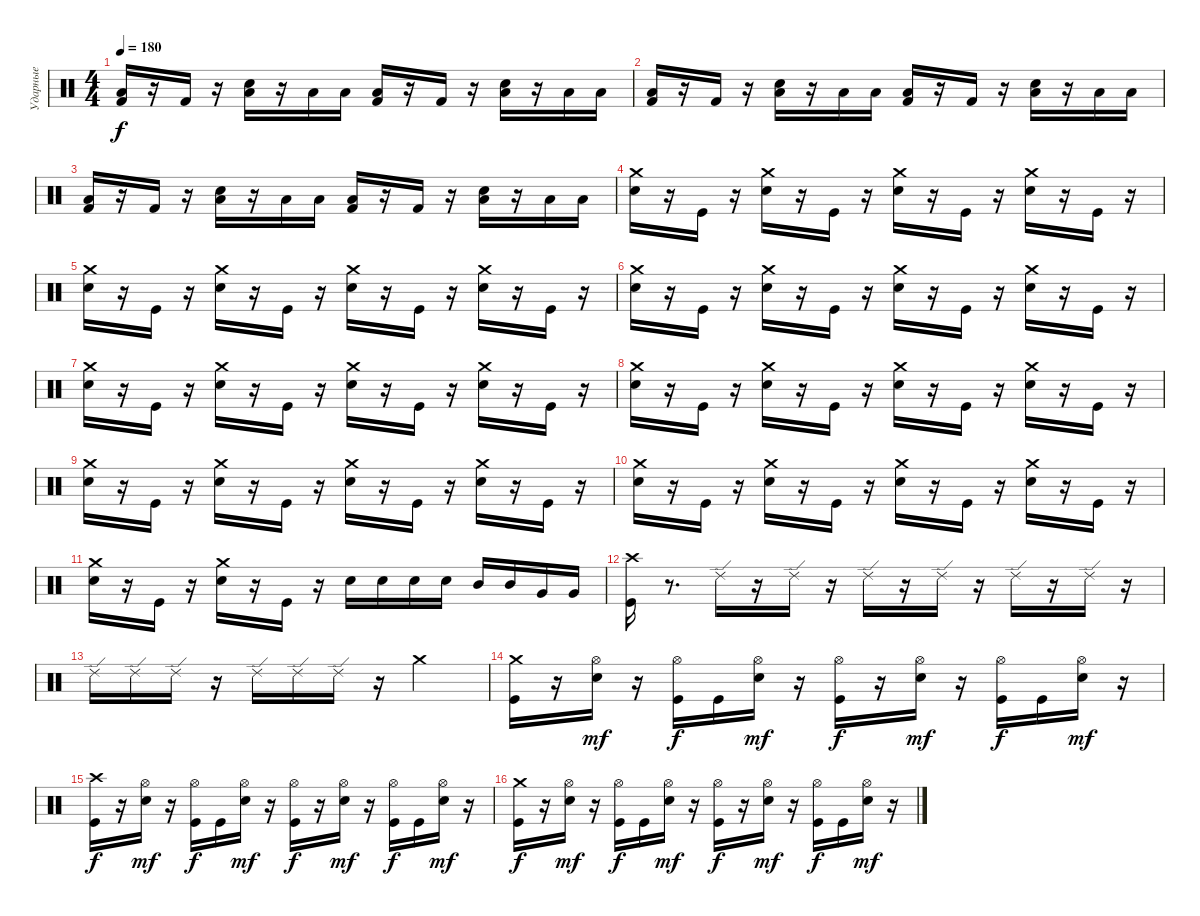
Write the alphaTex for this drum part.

\track ("Ударные" "Ударные") {instrument percussion}
\staff {score}
\articulation defaults
\ts (4 4)
\tempo 180
\clef neutral
\ks c
("Kick (hit) 2" "Low Tom (hit)").16{dy f} r.16 "Kick (hit) 2".16 r.16 ("Electric Snare (hit)" "Low Tom (hit)").16 r.16 "Low Tom (hit)".16 "Low Floor Tom (hit)".16 ("Kick (hit) 2" "Low Tom (hit)").16 r.16 "Kick (hit) 2".16 r.16 ("Electric Snare (hit)" "Low Tom (hit)").16 r.16 "Low Tom (hit)".16 "Low Floor Tom (hit)".16 |
("Kick (hit) 2" "Low Tom (hit)").16 r.16 "Kick (hit) 2".16 r.16 ("Electric Snare (hit)" "Low Tom (hit)").16 r.16 "Low Tom (hit)".16 "Low Floor Tom (hit)".16 ("Kick (hit) 2" "Low Tom (hit)").16 r.16 "Kick (hit) 2".16 r.16 ("Electric Snare (hit)" "Low Tom (hit)").16 r.16 "Low Tom (hit)".16 "Low Floor Tom (hit)".16 |
("Kick (hit) 2" "Low Tom (hit)").16 r.16 "Kick (hit) 2".16 r.16 ("Electric Snare (hit)" "Low Tom (hit)").16 r.16 "Low Tom (hit)".16 "Low Floor Tom (hit)".16 ("Kick (hit) 2" "Low Tom (hit)").16 r.16 "Kick (hit) 2".16 r.16 ("Electric Snare (hit)" "Low Tom (hit)").16 r.16 "Low Tom (hit)".16 "Low Floor Tom (hit)".16 |
("Crash medium (hit)" "Electric Snare (hit)").16 r.16 "Kick (hit)".16 r.16 ("Electric Snare (hit)" "Crash medium (hit)").16 r.16 "Kick (hit)".16 r.16 ("Electric Snare (hit)" "Crash medium (hit)").16 r.16 "Kick (hit)".16 r.16 ("Electric Snare (hit)" "Crash medium (hit)").16 r.16 "Kick (hit)".16 r.16 |
("Electric Snare (hit)" "Crash medium (hit)").16 r.16 "Kick (hit)".16 r.16 ("Electric Snare (hit)" "Crash medium (hit)").16 r.16 "Kick (hit)".16 r.16 ("Electric Snare (hit)" "Crash medium (hit)").16 r.16 "Kick (hit)".16 r.16 ("Electric Snare (hit)" "Crash medium (hit)").16 r.16 "Kick (hit)".16 r.16 |
("Crash medium (hit)" "Electric Snare (hit)").16 r.16 "Kick (hit)".16 r.16 ("Electric Snare (hit)" "Crash medium (hit)").16 r.16 "Kick (hit)".16 r.16 ("Electric Snare (hit)" "Crash medium (hit)").16 r.16 "Kick (hit)".16 r.16 ("Electric Snare (hit)" "Crash medium (hit)").16 r.16 "Kick (hit)".16 r.16 |
("Electric Snare (hit)" "Crash medium (hit)").16 r.16 "Kick (hit)".16 r.16 ("Electric Snare (hit)" "Crash medium (hit)").16 r.16 "Kick (hit)".16 r.16 ("Electric Snare (hit)" "Crash medium (hit)").16 r.16 "Kick (hit)".16 r.16 ("Electric Snare (hit)" "Crash medium (hit)").16 r.16 "Kick (hit)".16 r.16 |
("Crash medium (hit)" "Electric Snare (hit)").16 r.16 "Kick (hit)".16 r.16 ("Electric Snare (hit)" "Crash medium (hit)").16 r.16 "Kick (hit)".16 r.16 ("Electric Snare (hit)" "Crash medium (hit)").16 r.16 "Kick (hit)".16 r.16 ("Electric Snare (hit)" "Crash medium (hit)").16 r.16 "Kick (hit)".16 r.16 |
("Electric Snare (hit)" "Crash medium (hit)").16 r.16 "Kick (hit)".16 r.16 ("Electric Snare (hit)" "Crash medium (hit)").16 r.16 "Kick (hit)".16 r.16 ("Electric Snare (hit)" "Crash medium (hit)").16 r.16 "Kick (hit)".16 r.16 ("Electric Snare (hit)" "Crash medium (hit)").16 r.16 "Kick (hit)".16 r.16 |
("Crash medium (hit)" "Electric Snare (hit)").16 r.16 "Kick (hit)".16 r.16 ("Electric Snare (hit)" "Crash medium (hit)").16 r.16 "Kick (hit)".16 r.16 ("Electric Snare (hit)" "Crash medium (hit)").16 r.16 "Kick (hit)".16 r.16 ("Electric Snare (hit)" "Crash medium (hit)").16 r.16 "Kick (hit)".16 r.16 |
("Electric Snare (hit)" "Crash medium (hit)").16 r.16 "Kick (hit)".16 r.16 ("Electric Snare (hit)" "Crash medium (hit)").16 r.16 "Kick (hit)".16 r.16 "Electric Snare (hit)".16 "Electric Snare (hit)".16 "Electric Snare (hit)".16 "Electric Snare (hit)".16 "Mid Tom (hit)".16 "Mid Tom (hit)".16 "Very Low Tom (hit)".16 "Very Low Tom (hit)".16 |
("Kick (hit)" "Crash high (hit)").16 r.8{d} "Ride (edge) 2".16 r.16 "Ride (edge) 2".16 r.16 "Ride (edge) 2".16 r.16 "Ride (edge) 2".16 r.16 "Ride (edge) 2".16 r.16 "Ride (edge) 2".16 r.16 |
"Ride (edge) 2".16 "Ride (edge) 2".16 "Ride (edge) 2".16 r.16 "Ride (edge) 2".16 "Ride (edge) 2".16 "Ride (edge) 2".16 r.16 "Crash medium (hit)".2 |
("Kick (hit)" "Crash medium (hit)").16 r.16 ("Electric Snare (hit)" "Hi-Hat (open)").16{dy mf} r.16 ("Kick (hit)" "Hi-Hat (open)").16{dy f} "Kick (hit)".16 ("Electric Snare (hit)" "Hi-Hat (open)").16{dy mf} r.16 ("Kick (hit)" "Hi-Hat (open)").16{dy f} r.16 ("Electric Snare (hit)" "Hi-Hat (open)").16{dy mf} r.16 ("Kick (hit)" "Hi-Hat (open)").16{dy f} "Kick (hit)".16 ("Electric Snare (hit)" "Hi-Hat (open)").16{dy mf} r.16 |
("Kick (hit)" "Crash high (hit)").16{dy f} r.16 ("Electric Snare (hit)" "Hi-Hat (open)").16{dy mf} r.16 ("Kick (hit)" "Hi-Hat (open)").16{dy f} "Kick (hit)".16 ("Electric Snare (hit)" "Hi-Hat (open)").16{dy mf} r.16 ("Kick (hit)" "Hi-Hat (open)").16{dy f} r.16 ("Electric Snare (hit)" "Hi-Hat (open)").16{dy mf} r.16 ("Kick (hit)" "Hi-Hat (open)").16{dy f} "Kick (hit)".16 ("Electric Snare (hit)" "Hi-Hat (open)").16{dy mf} r.16 |
("Crash medium (hit)" "Kick (hit)").16{dy f} r.16 ("Electric Snare (hit)" "Hi-Hat (open)").16{dy mf} r.16 ("Kick (hit)" "Hi-Hat (open)").16{dy f} "Kick (hit)".16 ("Electric Snare (hit)" "Hi-Hat (open)").16{dy mf} r.16 ("Kick (hit)" "Hi-Hat (open)").16{dy f} r.16 ("Electric Snare (hit)" "Hi-Hat (open)").16{dy mf} r.16 ("Kick (hit)" "Hi-Hat (open)").16{dy f} "Kick (hit)".16 ("Electric Snare (hit)" "Hi-Hat (open)").16{dy mf} r.16
